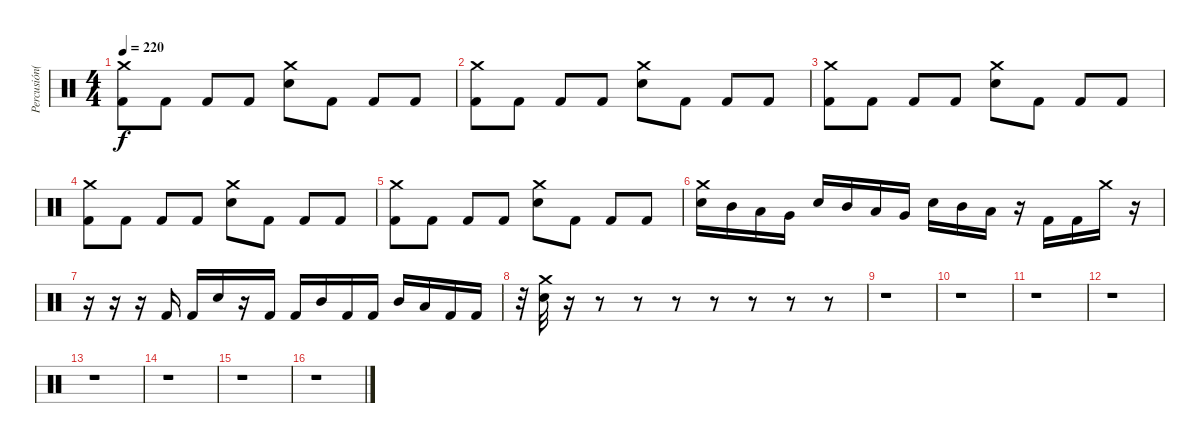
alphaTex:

\track ("Percusión(Brett Powell)" "Percusión(") {instrument percussion}
\staff {score}
\articulation defaults
\ts (4 4)
\tempo 220
\clef neutral
\ks c
("Crash medium (hit)" "Kick (hit) 2").8{dy f} "Kick (hit) 2".8 "Kick (hit) 2".8 "Kick (hit) 2".8 ("Crash medium (hit)" "Electric Snare (hit)").8 "Kick (hit) 2".8 "Kick (hit) 2".8 "Kick (hit) 2".8 |
("Crash medium (hit)" "Kick (hit) 2").8 "Kick (hit) 2".8 "Kick (hit) 2".8 "Kick (hit) 2".8 ("Crash medium (hit)" "Electric Snare (hit)").8 "Kick (hit) 2".8 "Kick (hit) 2".8 "Kick (hit) 2".8 |
("Crash medium (hit)" "Kick (hit) 2").8 "Kick (hit) 2".8 "Kick (hit) 2".8 "Kick (hit) 2".8 ("Crash medium (hit)" "Electric Snare (hit)").8 "Kick (hit) 2".8 "Kick (hit) 2".8 "Kick (hit) 2".8 |
("Crash medium (hit)" "Kick (hit) 2").8 "Kick (hit) 2".8 "Kick (hit) 2".8 "Kick (hit) 2".8 ("Crash medium (hit)" "Electric Snare (hit)").8 "Kick (hit) 2".8 "Kick (hit) 2".8 "Kick (hit) 2".8 |
("Crash medium (hit)" "Kick (hit) 2").8 "Kick (hit) 2".8 "Kick (hit) 2".8 "Kick (hit) 2".8 ("Crash medium (hit)" "Electric Snare (hit)").8 "Kick (hit) 2".8 "Kick (hit) 2".8 "Kick (hit) 2".8 |
("Crash medium (hit)" "Electric Snare (hit)").16 "Mid Tom (hit)".16 "Low Tom (hit)".16 "Very Low Tom (hit)".16 "Electric Snare (hit)".16 "Mid Tom (hit)".16 "Low Tom (hit)".16 "Very Low Tom (hit)".16 "Electric Snare (hit)".16 "Mid Tom (hit)".16 "Low Tom (hit)".16 r.16 "Kick (hit) 2".16 "Kick (hit) 2".16 "Crash medium (hit)".16 r.16 |
r.16 r.16 r.16 "Kick (hit) 2".16 "Kick (hit) 2".16 "Electric Snare (hit)".16 r.16 "Kick (hit) 2".16 "Kick (hit) 2".16 "Mid Tom (hit)".16 "Kick (hit) 2".16 "Kick (hit) 2".16 "Mid Tom (hit)".16 "Low Tom (hit)".16 "Kick (hit) 2".16 "Kick (hit) 2".16 |
r.32 ("Crash medium (hit)" "Electric Snare (hit)").32 r.16 r.8 r.8 r.8 r.8 r.8 r.8 r.8 |
r.1 |
r.1 |
r.1 |
r.1 |
r.1 |
r.1 |
r.1 |
r.1
